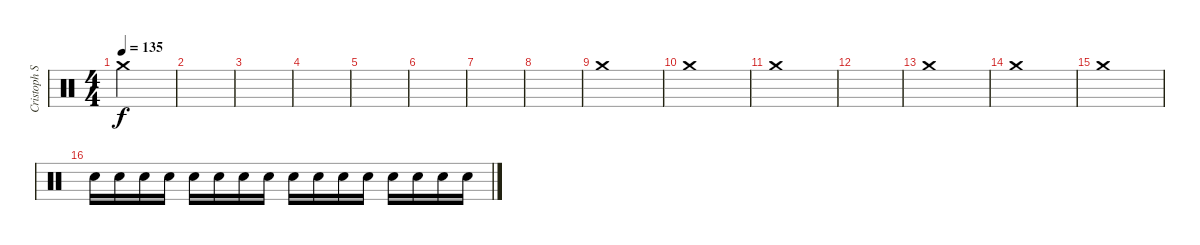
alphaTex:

\track ("Cristoph Schneider / Drums" "Cristoph S") {instrument percussion}
\staff {score}
\articulation defaults
\ts (4 4)
\tempo 135
\clef neutral
\ks c "Crash medium (hit)".2{dy f}
|
|
|
|
|
|
|
|
"Crash medium (hit)".1 |
"Crash medium (hit)".1 |
"Crash medium (hit)".1 |
|
"Crash medium (hit)".1 |
"Crash medium (hit)".1 |
"Crash medium (hit)".1 |
"Electric Snare (hit)".16 "Electric Snare (hit)".16 "Electric Snare (hit)".16 "Electric Snare (hit)".16 "Electric Snare (hit)".16 "Electric Snare (hit)".16 "Electric Snare (hit)".16 "Electric Snare (hit)".16 "Electric Snare (hit)".16 "Electric Snare (hit)".16 "Electric Snare (hit)".16 "Electric Snare (hit)".16 "Electric Snare (hit)".16 "Electric Snare (hit)".16 "Electric Snare (hit)".16 "Electric Snare (hit)".16
